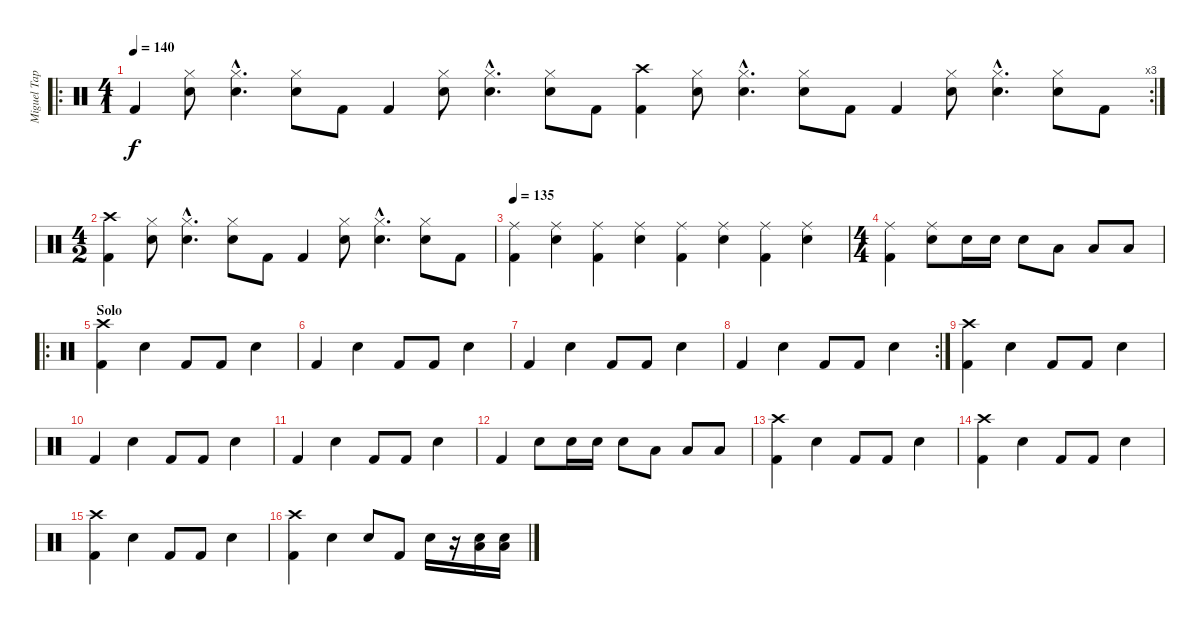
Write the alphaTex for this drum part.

\track ("Miguel Tapia" "Miguel Tap") {instrument percussion}
\staff {score}
\articulation defaults
\ro
\rc 3
\ts (4 1)
\tempo 140
\tempo 135
\tempo 140
\clef neutral
\ks c "Kick (hit) 2".4{dy f}
("Hi-Hat (closed)" "Snare (hit) 2").8 ("Hi-Hat (closed)"{hac} "Snare (hit) 2"{hac}).4{d} ("Hi-Hat (closed)" "Snare (hit) 2").8 "Kick (hit) 2".8 "Kick (hit) 2".4 ("Hi-Hat (closed)" "Snare (hit) 2").8 ("Hi-Hat (closed)"{hac} "Snare (hit) 2"{hac}).4{d} ("Hi-Hat (closed)" "Snare (hit) 2").8 "Kick (hit) 2".8 ("Crash high (hit)" "Kick (hit) 2").4 ("Hi-Hat (closed)" "Snare (hit) 2").8 ("Hi-Hat (closed)"{hac} "Snare (hit) 2"{hac}).4{d} ("Hi-Hat (closed)" "Snare (hit) 2").8 "Kick (hit) 2".8 "Kick (hit) 2".4 ("Hi-Hat (closed)" "Snare (hit) 2").8 ("Hi-Hat (closed)"{hac} "Snare (hit) 2"{hac}).4{d} ("Hi-Hat (closed)" "Snare (hit) 2").8 "Kick (hit) 2".8 |
\ts (4 2)
("Crash high (hit)" "Kick (hit) 2").4 ("Hi-Hat (closed)" "Snare (hit) 2").8 ("Hi-Hat (closed)"{hac} "Snare (hit) 2"{hac}).4{d} ("Hi-Hat (closed)" "Snare (hit) 2").8 "Kick (hit) 2".8 "Kick (hit) 2".4 ("Hi-Hat (closed)" "Snare (hit) 2").8 ("Hi-Hat (closed)"{hac} "Snare (hit) 2"{hac}).4{d} ("Hi-Hat (closed)" "Snare (hit) 2").8 "Kick (hit) 2".8 |
\tempo 135
("Ride (middle)" "Kick (hit) 2").4 ("Ride (middle)" "Snare (hit) 2").4 ("Ride (middle)" "Kick (hit) 2").4 ("Ride (middle)" "Snare (hit) 2").4 ("Ride (middle)" "Kick (hit) 2").4 ("Ride (middle)" "Snare (hit) 2").4 ("Ride (middle)" "Kick (hit) 2").4 ("Ride (middle)" "Snare (hit) 2").4 |
\ts (4 4)
("Ride (middle)" "Kick (hit) 2").4 ("Ride (middle)" "Snare (hit) 2").8 "Snare (hit)"{x}.16 "Snare (hit) 2".16 "Snare (hit) 2".8 "Low Tom (hit)".8 "Low Floor Tom (hit)".8 "Low Tom (hit)".8 |
\ro
\section ("" "Solo")
("Crash high (hit)" "Kick (hit) 2").4 "Snare (hit) 2".4 "Kick (hit) 2".8 "Kick (hit) 2".8 "Snare (hit) 2".4 |
"Kick (hit) 2".4 "Snare (hit) 2".4 "Kick (hit) 2".8 "Kick (hit) 2".8 "Snare (hit) 2".4 |
"Kick (hit) 2".4 "Snare (hit) 2".4 "Kick (hit) 2".8 "Kick (hit) 2".8 "Snare (hit) 2".4 |
\rc 2 "Kick (hit) 2".4 "Snare (hit) 2".4 "Kick (hit) 2".8 "Kick (hit) 2".8 "Snare (hit) 2".4
|
("Crash high (hit)" "Kick (hit) 2").4 "Snare (hit) 2".4 "Kick (hit) 2".8 "Kick (hit) 2".8 "Snare (hit) 2".4 |
"Kick (hit) 2".4 "Snare (hit) 2".4 "Kick (hit) 2".8 "Kick (hit) 2".8 "Snare (hit) 2".4 |
"Kick (hit) 2".4 "Snare (hit) 2".4 "Kick (hit) 2".8 "Kick (hit) 2".8 "Snare (hit) 2".4 |
"Kick (hit) 2".4 "Snare (hit) 2".8 "Snare (hit)"{x}.16 "Snare (hit) 2".16 "Snare (hit) 2".8 "Low Tom (hit)".8 "Low Floor Tom (hit)".8 "Low Tom (hit)".8 |
("Crash high (hit)" "Kick (hit) 2").4 "Snare (hit) 2".4 "Kick (hit) 2".8 "Kick (hit) 2".8 "Snare (hit) 2".4 |
("Crash high (hit)" "Kick (hit) 2").4 "Snare (hit) 2".4 "Kick (hit) 2".8 "Kick (hit) 2".8 "Snare (hit) 2".4 |
("Crash high (hit)" "Kick (hit) 2").4 "Snare (hit) 2".4 "Kick (hit) 2".8 "Kick (hit) 2".8 "Snare (hit) 2".4 |
("Crash high (hit)" "Kick (hit) 2").4 "Snare (hit) 2".4 "Snare (hit) 2".8 "Kick (hit) 2".8 "Snare (hit) 2".16 r.16 ("Snare (hit) 2" "Low Tom (hit)").16 ("Snare (hit) 2" "Low Floor Tom (hit)").16
